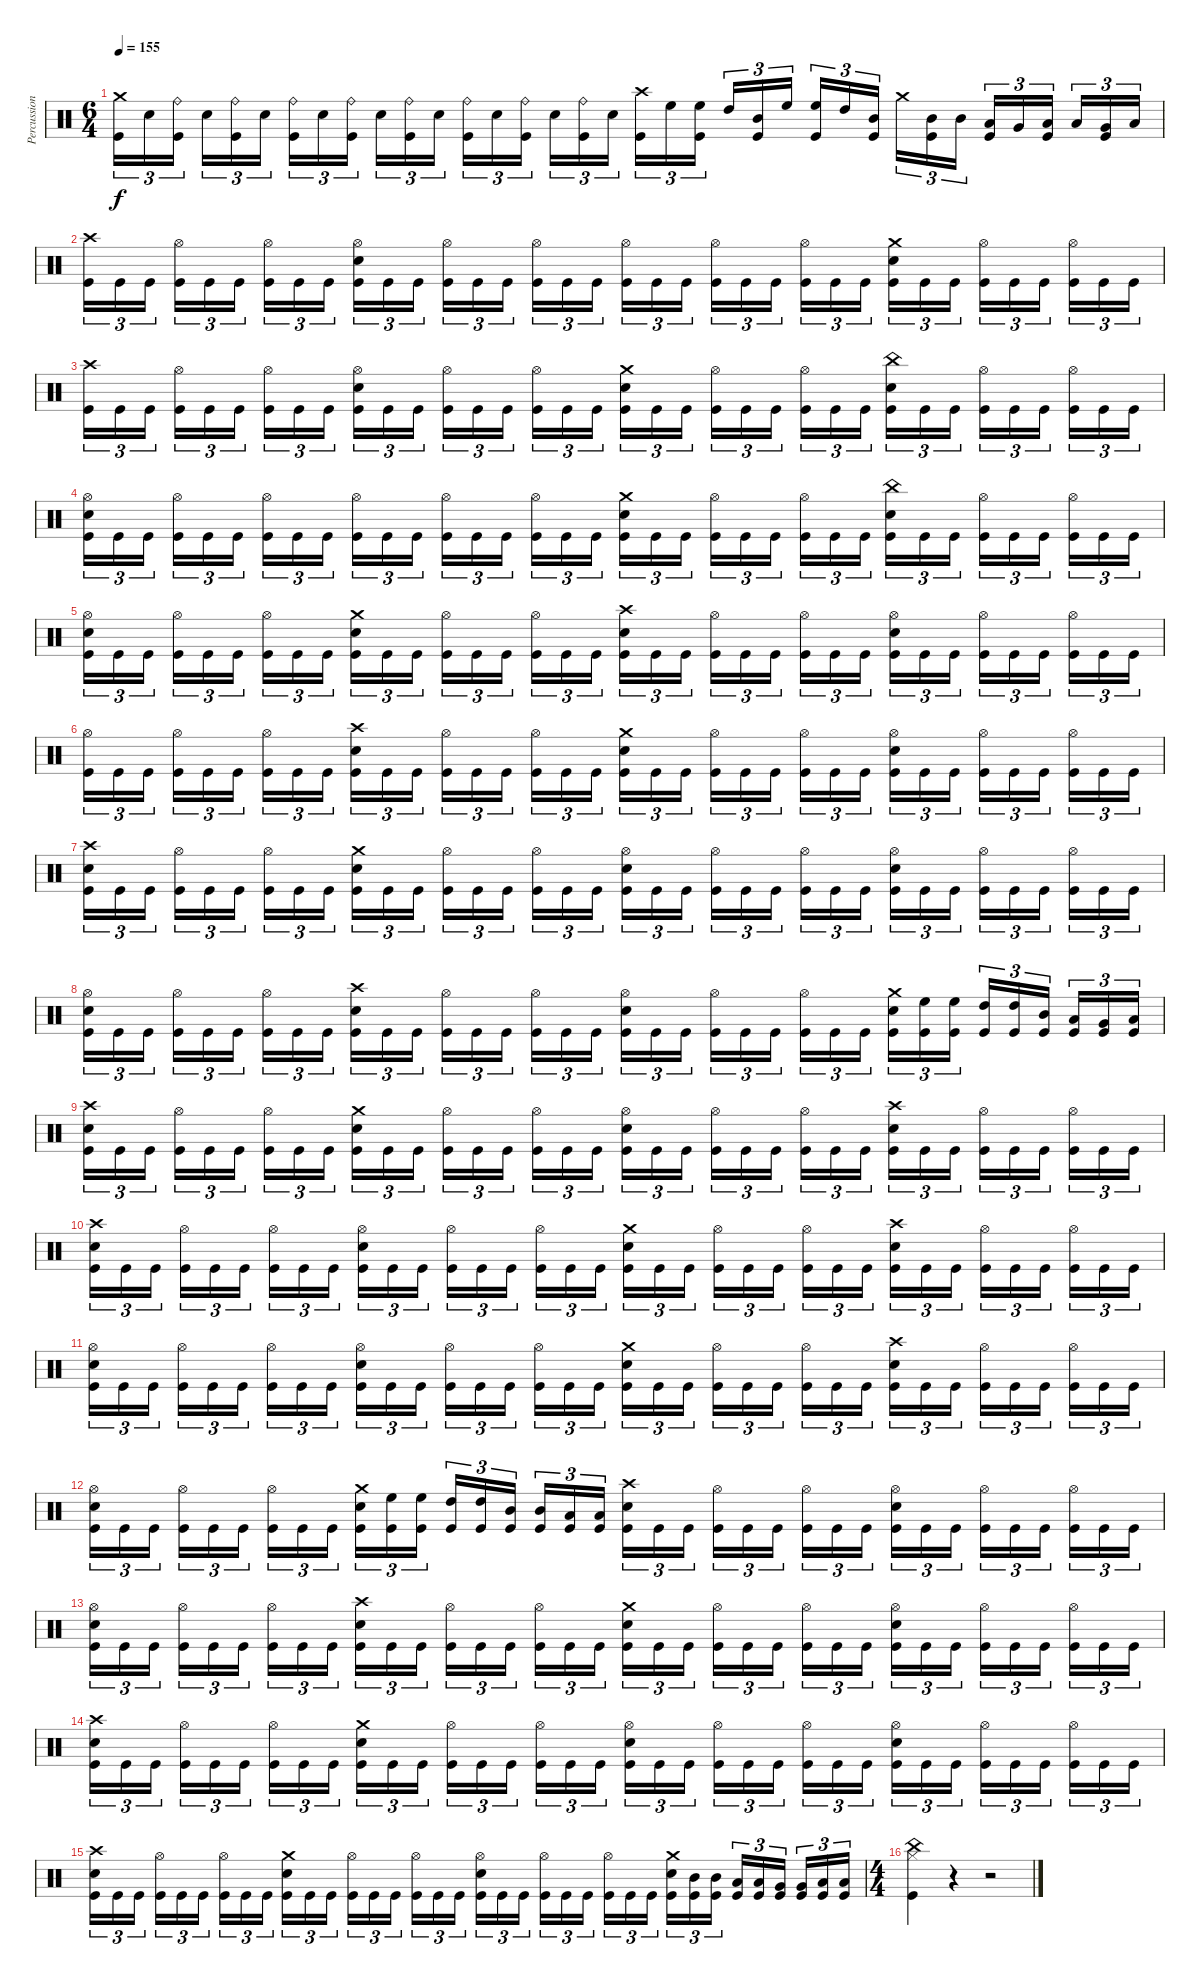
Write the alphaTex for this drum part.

\track ("Percussion" "Percussion") {instrument percussion}
\staff {score}
\articulation defaults
\ts (6 4)
\tempo 155
\clef neutral
\ks c
("Crash medium (hit)" "Kick (hit)").16{tu (3 2) dy f} "Snare (hit) 2".16{tu (3 2)} ("Ride (bell)" "Kick (hit)").16{tu (3 2) beam splitsecondary} "Snare (hit) 2".16{tu (3 2)} ("Ride (bell)" "Kick (hit)").16{tu (3 2)} "Snare (hit) 2".16{tu (3 2) beam splitsecondary} ("Ride (bell)" "Kick (hit)").16{tu (3 2)} "Snare (hit) 2".16{tu (3 2)} ("Ride (bell)" "Kick (hit)").16{tu (3 2) beam splitsecondary} "Snare (hit) 2".16{tu (3 2)} ("Ride (bell)" "Kick (hit)").16{tu (3 2)} "Snare (hit) 2".16{tu (3 2) beam splitsecondary} ("Ride (bell)" "Kick (hit)").16{tu (3 2)} "Snare (hit) 2".16{tu (3 2)} ("Ride (bell)" "Kick (hit)").16{tu (3 2) beam splitsecondary} "Snare (hit) 2".16{tu (3 2)} ("Ride (bell)" "Kick (hit)").16{tu (3 2)} "Snare (hit) 2".16{tu (3 2)} ("Crash high (hit)" "Kick (hit)").16{tu (3 2)} "High Floor Tom (hit)".16{tu (3 2)} ("High Floor Tom (hit)" "Kick (hit)").16{tu (3 2) beam splitsecondary} "High Tom (hit)".16{tu (3 2)} ("Mid Tom (hit)" "Kick (hit)").16{tu (3 2)} "High Floor Tom (hit)".16{tu (3 2) beam splitsecondary} ("High Floor Tom (hit)" "Kick (hit)").16{tu (3 2)} "High Tom (hit)".16{tu (3 2)} ("Mid Tom (hit)" "Kick (hit)").16{tu (3 2) beam splitsecondary} "Crash medium (hit)".16{tu (3 2)} ("Mid Tom (hit)" "Kick (hit)").16{tu (3 2)} "Mid Tom (hit)".16{tu (3 2) beam splitsecondary} ("Low Tom (hit)" "Kick (hit)").16{tu (3 2)} "Very Low Tom (hit)".16{tu (3 2)} ("Low Tom (hit)" "Kick (hit)").16{tu (3 2) beam splitsecondary} "Low Tom (hit)".16{tu (3 2)} ("Very Low Tom (hit)" "Kick (hit)").16{tu (3 2)} "Low Floor Tom (hit)".16{tu (3 2)} |
("Crash high (hit)" "Kick (hit)").16{tu (3 2)} "Kick (hit)".16{tu (3 2)} "Kick (hit)".16{tu (3 2) beam splitsecondary} ("Hi-Hat (open)" "Kick (hit)").16{tu (3 2)} "Kick (hit)".16{tu (3 2)} "Kick (hit)".16{tu (3 2) beam splitsecondary} ("Hi-Hat (open)" "Kick (hit)").16{tu (3 2)} "Kick (hit)".16{tu (3 2)} "Kick (hit)".16{tu (3 2) beam splitsecondary} ("Hi-Hat (open)" "Snare (hit) 2" "Kick (hit)").16{tu (3 2)} "Kick (hit)".16{tu (3 2)} "Kick (hit)".16{tu (3 2) beam splitsecondary} ("Hi-Hat (open)" "Kick (hit)").16{tu (3 2)} "Kick (hit)".16{tu (3 2)} "Kick (hit)".16{tu (3 2) beam splitsecondary} ("Hi-Hat (open)" "Kick (hit)").16{tu (3 2)} "Kick (hit)".16{tu (3 2)} "Kick (hit)".16{tu (3 2)} ("Hi-Hat (open)" "Kick (hit)").16{tu (3 2)} "Kick (hit)".16{tu (3 2)} "Kick (hit)".16{tu (3 2) beam splitsecondary} ("Hi-Hat (open)" "Kick (hit)").16{tu (3 2)} "Kick (hit)".16{tu (3 2)} "Kick (hit)".16{tu (3 2) beam splitsecondary} ("Hi-Hat (open)" "Kick (hit)").16{tu (3 2)} "Kick (hit)".16{tu (3 2)} "Kick (hit)".16{tu (3 2) beam splitsecondary} ("Crash medium (hit)" "Snare (hit) 2" "Kick (hit)").16{tu (3 2)} "Kick (hit)".16{tu (3 2)} "Kick (hit)".16{tu (3 2) beam splitsecondary} ("Hi-Hat (open)" "Kick (hit)").16{tu (3 2)} "Kick (hit)".16{tu (3 2)} "Kick (hit)".16{tu (3 2) beam splitsecondary} ("Hi-Hat (open)" "Kick (hit)").16{tu (3 2)} "Kick (hit)".16{tu (3 2)} "Kick (hit)".16{tu (3 2)} |
("Crash high (hit)" "Kick (hit)").16{tu (3 2)} "Kick (hit)".16{tu (3 2)} "Kick (hit)".16{tu (3 2) beam splitsecondary} ("Hi-Hat (open)" "Kick (hit)").16{tu (3 2)} "Kick (hit)".16{tu (3 2)} "Kick (hit)".16{tu (3 2) beam splitsecondary} ("Hi-Hat (open)" "Kick (hit)").16{tu (3 2)} "Kick (hit)".16{tu (3 2)} "Kick (hit)".16{tu (3 2) beam splitsecondary} ("Hi-Hat (open)" "Snare (hit) 2" "Kick (hit)").16{tu (3 2)} "Kick (hit)".16{tu (3 2)} "Kick (hit)".16{tu (3 2) beam splitsecondary} ("Hi-Hat (open)" "Kick (hit)").16{tu (3 2)} "Kick (hit)".16{tu (3 2)} "Kick (hit)".16{tu (3 2) beam splitsecondary} ("Hi-Hat (open)" "Kick (hit)").16{tu (3 2)} "Kick (hit)".16{tu (3 2)} "Kick (hit)".16{tu (3 2)} ("Crash medium (hit)" "Snare (hit) 2" "Kick (hit)").16{tu (3 2)} "Kick (hit)".16{tu (3 2)} "Kick (hit)".16{tu (3 2) beam splitsecondary} ("Hi-Hat (open)" "Kick (hit)").16{tu (3 2)} "Kick (hit)".16{tu (3 2)} "Kick (hit)".16{tu (3 2) beam splitsecondary} ("Hi-Hat (open)" "Kick (hit)").16{tu (3 2)} "Kick (hit)".16{tu (3 2)} "Kick (hit)".16{tu (3 2) beam splitsecondary} ("China (hit)" "Snare (hit) 2" "Kick (hit)").16{tu (3 2)} "Kick (hit)".16{tu (3 2)} "Kick (hit)".16{tu (3 2) beam splitsecondary} ("Hi-Hat (open)" "Kick (hit)").16{tu (3 2)} "Kick (hit)".16{tu (3 2)} "Kick (hit)".16{tu (3 2) beam splitsecondary} ("Hi-Hat (open)" "Kick (hit)").16{tu (3 2)} "Kick (hit)".16{tu (3 2)} "Kick (hit)".16{tu (3 2)} |
("Hi-Hat (open)" "Snare (hit) 2" "Kick (hit)").16{tu (3 2)} "Kick (hit)".16{tu (3 2)} "Kick (hit)".16{tu (3 2) beam splitsecondary} ("Hi-Hat (open)" "Kick (hit)").16{tu (3 2)} "Kick (hit)".16{tu (3 2)} "Kick (hit)".16{tu (3 2) beam splitsecondary} ("Hi-Hat (open)" "Kick (hit)").16{tu (3 2)} "Kick (hit)".16{tu (3 2)} "Kick (hit)".16{tu (3 2) beam splitsecondary} ("Hi-Hat (open)" "Kick (hit)").16{tu (3 2)} "Kick (hit)".16{tu (3 2)} "Kick (hit)".16{tu (3 2) beam splitsecondary} ("Hi-Hat (open)" "Kick (hit)").16{tu (3 2)} "Kick (hit)".16{tu (3 2)} "Kick (hit)".16{tu (3 2) beam splitsecondary} ("Hi-Hat (open)" "Kick (hit)").16{tu (3 2)} "Kick (hit)".16{tu (3 2)} "Kick (hit)".16{tu (3 2)} ("Crash medium (hit)" "Snare (hit) 2" "Kick (hit)").16{tu (3 2)} "Kick (hit)".16{tu (3 2)} "Kick (hit)".16{tu (3 2) beam splitsecondary} ("Hi-Hat (open)" "Kick (hit)").16{tu (3 2)} "Kick (hit)".16{tu (3 2)} "Kick (hit)".16{tu (3 2) beam splitsecondary} ("Hi-Hat (open)" "Kick (hit)").16{tu (3 2)} "Kick (hit)".16{tu (3 2)} "Kick (hit)".16{tu (3 2) beam splitsecondary} ("China (hit)" "Snare (hit) 2" "Kick (hit)").16{tu (3 2)} "Kick (hit)".16{tu (3 2)} "Kick (hit)".16{tu (3 2) beam splitsecondary} ("Hi-Hat (open)" "Kick (hit)").16{tu (3 2)} "Kick (hit)".16{tu (3 2)} "Kick (hit)".16{tu (3 2) beam splitsecondary} ("Hi-Hat (open)" "Kick (hit)").16{tu (3 2)} "Kick (hit)".16{tu (3 2)} "Kick (hit)".16{tu (3 2)} |
("Hi-Hat (open)" "Snare (hit) 2" "Kick (hit)").16{tu (3 2)} "Kick (hit)".16{tu (3 2)} "Kick (hit)".16{tu (3 2) beam splitsecondary} ("Hi-Hat (open)" "Kick (hit)").16{tu (3 2)} "Kick (hit)".16{tu (3 2)} "Kick (hit)".16{tu (3 2) beam splitsecondary} ("Hi-Hat (open)" "Kick (hit)").16{tu (3 2)} "Kick (hit)".16{tu (3 2)} "Kick (hit)".16{tu (3 2) beam splitsecondary} ("Crash medium (hit)" "Snare (hit) 2" "Kick (hit)").16{tu (3 2)} "Kick (hit)".16{tu (3 2)} "Kick (hit)".16{tu (3 2) beam splitsecondary} ("Hi-Hat (open)" "Kick (hit)").16{tu (3 2)} "Kick (hit)".16{tu (3 2)} "Kick (hit)".16{tu (3 2) beam splitsecondary} ("Hi-Hat (open)" "Kick (hit)").16{tu (3 2)} "Kick (hit)".16{tu (3 2)} "Kick (hit)".16{tu (3 2)} ("Crash high (hit)" "Snare (hit) 2" "Kick (hit)").16{tu (3 2)} "Kick (hit)".16{tu (3 2)} "Kick (hit)".16{tu (3 2) beam splitsecondary} ("Hi-Hat (open)" "Kick (hit)").16{tu (3 2)} "Kick (hit)".16{tu (3 2)} "Kick (hit)".16{tu (3 2) beam splitsecondary} ("Hi-Hat (open)" "Kick (hit)").16{tu (3 2)} "Kick (hit)".16{tu (3 2)} "Kick (hit)".16{tu (3 2) beam splitsecondary} ("Hi-Hat (open)" "Snare (hit) 2" "Kick (hit)").16{tu (3 2)} "Kick (hit)".16{tu (3 2)} "Kick (hit)".16{tu (3 2) beam splitsecondary} ("Hi-Hat (open)" "Kick (hit)").16{tu (3 2)} "Kick (hit)".16{tu (3 2)} "Kick (hit)".16{tu (3 2) beam splitsecondary} ("Hi-Hat (open)" "Kick (hit)").16{tu (3 2)} "Kick (hit)".16{tu (3 2)} "Kick (hit)".16{tu (3 2)} |
("Hi-Hat (open)" "Kick (hit)").16{tu (3 2)} "Kick (hit)".16{tu (3 2)} "Kick (hit)".16{tu (3 2) beam splitsecondary} ("Hi-Hat (open)" "Kick (hit)").16{tu (3 2)} "Kick (hit)".16{tu (3 2)} "Kick (hit)".16{tu (3 2) beam splitsecondary} ("Hi-Hat (open)" "Kick (hit)").16{tu (3 2)} "Kick (hit)".16{tu (3 2)} "Kick (hit)".16{tu (3 2) beam splitsecondary} ("Crash high (hit)" "Snare (hit) 2" "Kick (hit)").16{tu (3 2)} "Kick (hit)".16{tu (3 2)} "Kick (hit)".16{tu (3 2) beam splitsecondary} ("Hi-Hat (open)" "Kick (hit)").16{tu (3 2)} "Kick (hit)".16{tu (3 2)} "Kick (hit)".16{tu (3 2) beam splitsecondary} ("Hi-Hat (open)" "Kick (hit)").16{tu (3 2)} "Kick (hit)".16{tu (3 2)} "Kick (hit)".16{tu (3 2)} ("Crash medium (hit)" "Snare (hit) 2" "Kick (hit)").16{tu (3 2)} "Kick (hit)".16{tu (3 2)} "Kick (hit)".16{tu (3 2) beam splitsecondary} ("Hi-Hat (open)" "Kick (hit)").16{tu (3 2)} "Kick (hit)".16{tu (3 2)} "Kick (hit)".16{tu (3 2) beam splitsecondary} ("Hi-Hat (open)" "Kick (hit)").16{tu (3 2)} "Kick (hit)".16{tu (3 2)} "Kick (hit)".16{tu (3 2) beam splitsecondary} ("Hi-Hat (open)" "Snare (hit) 2" "Kick (hit)").16{tu (3 2)} "Kick (hit)".16{tu (3 2)} "Kick (hit)".16{tu (3 2) beam splitsecondary} ("Hi-Hat (open)" "Kick (hit)").16{tu (3 2)} "Kick (hit)".16{tu (3 2)} "Kick (hit)".16{tu (3 2) beam splitsecondary} ("Hi-Hat (open)" "Kick (hit)").16{tu (3 2)} "Kick (hit)".16{tu (3 2)} "Kick (hit)".16{tu (3 2)} |
("Crash high (hit)" "Snare (hit) 2" "Kick (hit)").16{tu (3 2)} "Kick (hit)".16{tu (3 2)} "Kick (hit)".16{tu (3 2) beam splitsecondary} ("Hi-Hat (open)" "Kick (hit)").16{tu (3 2)} "Kick (hit)".16{tu (3 2)} "Kick (hit)".16{tu (3 2) beam splitsecondary} ("Hi-Hat (open)" "Kick (hit)").16{tu (3 2)} "Kick (hit)".16{tu (3 2)} "Kick (hit)".16{tu (3 2) beam splitsecondary} ("Crash medium (hit)" "Snare (hit) 2" "Kick (hit)").16{tu (3 2)} "Kick (hit)".16{tu (3 2)} "Kick (hit)".16{tu (3 2) beam splitsecondary} ("Hi-Hat (open)" "Kick (hit)").16{tu (3 2)} "Kick (hit)".16{tu (3 2)} "Kick (hit)".16{tu (3 2) beam splitsecondary} ("Hi-Hat (open)" "Kick (hit)").16{tu (3 2)} "Kick (hit)".16{tu (3 2)} "Kick (hit)".16{tu (3 2)} ("Hi-Hat (open)" "Snare (hit) 2" "Kick (hit)").16{tu (3 2)} "Kick (hit)".16{tu (3 2)} "Kick (hit)".16{tu (3 2) beam splitsecondary} ("Hi-Hat (open)" "Kick (hit)").16{tu (3 2)} "Kick (hit)".16{tu (3 2)} "Kick (hit)".16{tu (3 2) beam splitsecondary} ("Hi-Hat (open)" "Kick (hit)").16{tu (3 2)} "Kick (hit)".16{tu (3 2)} "Kick (hit)".16{tu (3 2) beam splitsecondary} ("Hi-Hat (open)" "Snare (hit) 2" "Kick (hit)").16{tu (3 2)} "Kick (hit)".16{tu (3 2)} "Kick (hit)".16{tu (3 2) beam splitsecondary} ("Hi-Hat (open)" "Kick (hit)").16{tu (3 2)} "Kick (hit)".16{tu (3 2)} "Kick (hit)".16{tu (3 2) beam splitsecondary} ("Hi-Hat (open)" "Kick (hit)").16{tu (3 2)} "Kick (hit)".16{tu (3 2)} "Kick (hit)".16{tu (3 2)} |
("Hi-Hat (open)" "Snare (hit) 2" "Kick (hit)").16{tu (3 2)} "Kick (hit)".16{tu (3 2)} "Kick (hit)".16{tu (3 2) beam splitsecondary} ("Hi-Hat (open)" "Kick (hit)").16{tu (3 2)} "Kick (hit)".16{tu (3 2)} "Kick (hit)".16{tu (3 2) beam splitsecondary} ("Hi-Hat (open)" "Kick (hit)").16{tu (3 2)} "Kick (hit)".16{tu (3 2)} "Kick (hit)".16{tu (3 2) beam splitsecondary} ("Crash high (hit)" "Snare (hit) 2" "Kick (hit)").16{tu (3 2)} "Kick (hit)".16{tu (3 2)} "Kick (hit)".16{tu (3 2) beam splitsecondary} ("Hi-Hat (open)" "Kick (hit)").16{tu (3 2)} "Kick (hit)".16{tu (3 2)} "Kick (hit)".16{tu (3 2) beam splitsecondary} ("Hi-Hat (open)" "Kick (hit)").16{tu (3 2)} "Kick (hit)".16{tu (3 2)} "Kick (hit)".16{tu (3 2)} ("Hi-Hat (open)" "Snare (hit) 2" "Kick (hit)").16{tu (3 2)} "Kick (hit)".16{tu (3 2)} "Kick (hit)".16{tu (3 2) beam splitsecondary} ("Hi-Hat (open)" "Kick (hit)").16{tu (3 2)} "Kick (hit)".16{tu (3 2)} "Kick (hit)".16{tu (3 2) beam splitsecondary} ("Hi-Hat (open)" "Kick (hit)").16{tu (3 2)} "Kick (hit)".16{tu (3 2)} "Kick (hit)".16{tu (3 2) beam splitsecondary} ("Crash medium (hit)" "Snare (hit) 2" "Kick (hit)").16{tu (3 2)} ("High Floor Tom (hit)" "Kick (hit)").16{tu (3 2)} ("High Floor Tom (hit)" "Kick (hit)").16{tu (3 2) beam splitsecondary} ("High Tom (hit)" "Kick (hit)").16{tu (3 2)} ("High Tom (hit)" "Kick (hit)").16{tu (3 2)} ("Mid Tom (hit)" "Kick (hit)").16{tu (3 2) beam splitsecondary} ("Low Tom (hit)" "Kick (hit)").16{tu (3 2)} ("Very Low Tom (hit)" "Kick (hit)").16{tu (3 2)} ("Low Floor Tom (hit)" "Kick (hit)").16{tu (3 2)} |
("Crash high (hit)" "Snare (hit) 2" "Kick (hit)").16{tu (3 2)} "Kick (hit)".16{tu (3 2)} "Kick (hit)".16{tu (3 2) beam splitsecondary} ("Hi-Hat (open)" "Kick (hit)").16{tu (3 2)} "Kick (hit)".16{tu (3 2)} "Kick (hit)".16{tu (3 2) beam splitsecondary} ("Hi-Hat (open)" "Kick (hit)").16{tu (3 2)} "Kick (hit)".16{tu (3 2)} "Kick (hit)".16{tu (3 2) beam splitsecondary} ("Crash medium (hit)" "Snare (hit) 2" "Kick (hit)").16{tu (3 2)} "Kick (hit)".16{tu (3 2)} "Kick (hit)".16{tu (3 2) beam splitsecondary} ("Hi-Hat (open)" "Kick (hit)").16{tu (3 2)} "Kick (hit)".16{tu (3 2)} "Kick (hit)".16{tu (3 2) beam splitsecondary} ("Hi-Hat (open)" "Kick (hit)").16{tu (3 2)} "Kick (hit)".16{tu (3 2)} "Kick (hit)".16{tu (3 2)} ("Hi-Hat (open)" "Snare (hit) 2" "Kick (hit)").16{tu (3 2)} "Kick (hit)".16{tu (3 2)} "Kick (hit)".16{tu (3 2) beam splitsecondary} ("Hi-Hat (open)" "Kick (hit)").16{tu (3 2)} "Kick (hit)".16{tu (3 2)} "Kick (hit)".16{tu (3 2) beam splitsecondary} ("Hi-Hat (open)" "Kick (hit)").16{tu (3 2)} "Kick (hit)".16{tu (3 2)} "Kick (hit)".16{tu (3 2) beam splitsecondary} ("Crash high (hit)" "Snare (hit) 2" "Kick (hit)").16{tu (3 2)} "Kick (hit)".16{tu (3 2)} "Kick (hit)".16{tu (3 2) beam splitsecondary} ("Hi-Hat (open)" "Kick (hit)").16{tu (3 2)} "Kick (hit)".16{tu (3 2)} "Kick (hit)".16{tu (3 2) beam splitsecondary} ("Hi-Hat (open)" "Kick (hit)").16{tu (3 2)} "Kick (hit)".16{tu (3 2)} "Kick (hit)".16{tu (3 2)} |
("Crash high (hit)" "Snare (hit) 2" "Kick (hit)").16{tu (3 2)} "Kick (hit)".16{tu (3 2)} "Kick (hit)".16{tu (3 2) beam splitsecondary} ("Hi-Hat (open)" "Kick (hit)").16{tu (3 2)} "Kick (hit)".16{tu (3 2)} "Kick (hit)".16{tu (3 2) beam splitsecondary} ("Hi-Hat (open)" "Kick (hit)").16{tu (3 2)} "Kick (hit)".16{tu (3 2)} "Kick (hit)".16{tu (3 2) beam splitsecondary} ("Hi-Hat (open)" "Snare (hit) 2" "Kick (hit)").16{tu (3 2)} "Kick (hit)".16{tu (3 2)} "Kick (hit)".16{tu (3 2) beam splitsecondary} ("Hi-Hat (open)" "Kick (hit)").16{tu (3 2)} "Kick (hit)".16{tu (3 2)} "Kick (hit)".16{tu (3 2) beam splitsecondary} ("Hi-Hat (open)" "Kick (hit)").16{tu (3 2)} "Kick (hit)".16{tu (3 2)} "Kick (hit)".16{tu (3 2)} ("Crash medium (hit)" "Snare (hit) 2" "Kick (hit)").16{tu (3 2)} "Kick (hit)".16{tu (3 2)} "Kick (hit)".16{tu (3 2) beam splitsecondary} ("Hi-Hat (open)" "Kick (hit)").16{tu (3 2)} "Kick (hit)".16{tu (3 2)} "Kick (hit)".16{tu (3 2) beam splitsecondary} ("Hi-Hat (open)" "Kick (hit)").16{tu (3 2)} "Kick (hit)".16{tu (3 2)} "Kick (hit)".16{tu (3 2) beam splitsecondary} ("Crash high (hit)" "Snare (hit) 2" "Kick (hit)").16{tu (3 2)} "Kick (hit)".16{tu (3 2)} "Kick (hit)".16{tu (3 2) beam splitsecondary} ("Hi-Hat (open)" "Kick (hit)").16{tu (3 2)} "Kick (hit)".16{tu (3 2)} "Kick (hit)".16{tu (3 2) beam splitsecondary} ("Hi-Hat (open)" "Kick (hit)").16{tu (3 2)} "Kick (hit)".16{tu (3 2)} "Kick (hit)".16{tu (3 2)} |
("Hi-Hat (open)" "Snare (hit) 2" "Kick (hit)").16{tu (3 2)} "Kick (hit)".16{tu (3 2)} "Kick (hit)".16{tu (3 2) beam splitsecondary} ("Hi-Hat (open)" "Kick (hit)").16{tu (3 2)} "Kick (hit)".16{tu (3 2)} "Kick (hit)".16{tu (3 2) beam splitsecondary} ("Hi-Hat (open)" "Kick (hit)").16{tu (3 2)} "Kick (hit)".16{tu (3 2)} "Kick (hit)".16{tu (3 2) beam splitsecondary} ("Hi-Hat (open)" "Snare (hit) 2" "Kick (hit)").16{tu (3 2)} "Kick (hit)".16{tu (3 2)} "Kick (hit)".16{tu (3 2) beam splitsecondary} ("Hi-Hat (open)" "Kick (hit)").16{tu (3 2)} "Kick (hit)".16{tu (3 2)} "Kick (hit)".16{tu (3 2) beam splitsecondary} ("Hi-Hat (open)" "Kick (hit)").16{tu (3 2)} "Kick (hit)".16{tu (3 2)} "Kick (hit)".16{tu (3 2)} ("Crash medium (hit)" "Snare (hit) 2" "Kick (hit)").16{tu (3 2)} "Kick (hit)".16{tu (3 2)} "Kick (hit)".16{tu (3 2) beam splitsecondary} ("Hi-Hat (open)" "Kick (hit)").16{tu (3 2)} "Kick (hit)".16{tu (3 2)} "Kick (hit)".16{tu (3 2) beam splitsecondary} ("Hi-Hat (open)" "Kick (hit)").16{tu (3 2)} "Kick (hit)".16{tu (3 2)} "Kick (hit)".16{tu (3 2) beam splitsecondary} ("Crash high (hit)" "Snare (hit) 2" "Kick (hit)").16{tu (3 2)} "Kick (hit)".16{tu (3 2)} "Kick (hit)".16{tu (3 2) beam splitsecondary} ("Hi-Hat (open)" "Kick (hit)").16{tu (3 2)} "Kick (hit)".16{tu (3 2)} "Kick (hit)".16{tu (3 2) beam splitsecondary} ("Hi-Hat (open)" "Kick (hit)").16{tu (3 2)} "Kick (hit)".16{tu (3 2)} "Kick (hit)".16{tu (3 2)} |
("Hi-Hat (open)" "Snare (hit) 2" "Kick (hit)").16{tu (3 2)} "Kick (hit)".16{tu (3 2)} "Kick (hit)".16{tu (3 2) beam splitsecondary} ("Hi-Hat (open)" "Kick (hit)").16{tu (3 2)} "Kick (hit)".16{tu (3 2)} "Kick (hit)".16{tu (3 2) beam splitsecondary} ("Hi-Hat (open)" "Kick (hit)").16{tu (3 2)} "Kick (hit)".16{tu (3 2)} "Kick (hit)".16{tu (3 2) beam splitsecondary} ("Crash medium (hit)" "Snare (hit) 2" "Kick (hit)").16{tu (3 2)} ("High Floor Tom (hit)" "Kick (hit)").16{tu (3 2)} ("High Floor Tom (hit)" "Kick (hit)").16{tu (3 2) beam splitsecondary} ("High Tom (hit)" "Kick (hit)").16{tu (3 2)} ("High Tom (hit)" "Kick (hit)").16{tu (3 2)} ("Mid Tom (hit)" "Kick (hit)").16{tu (3 2) beam splitsecondary} ("Mid Tom (hit)" "Kick (hit)").16{tu (3 2)} ("Low Tom (hit)" "Kick (hit)").16{tu (3 2)} ("Low Tom (hit)" "Kick (hit)").16{tu (3 2)} ("Crash high (hit)" "Snare (hit) 2" "Kick (hit)").16{tu (3 2)} "Kick (hit)".16{tu (3 2)} "Kick (hit)".16{tu (3 2) beam splitsecondary} ("Hi-Hat (open)" "Kick (hit)").16{tu (3 2)} "Kick (hit)".16{tu (3 2)} "Kick (hit)".16{tu (3 2) beam splitsecondary} ("Hi-Hat (open)" "Kick (hit)").16{tu (3 2)} "Kick (hit)".16{tu (3 2)} "Kick (hit)".16{tu (3 2) beam splitsecondary} ("Hi-Hat (open)" "Snare (hit) 2" "Kick (hit)").16{tu (3 2)} "Kick (hit)".16{tu (3 2)} "Kick (hit)".16{tu (3 2) beam splitsecondary} ("Hi-Hat (open)" "Kick (hit)").16{tu (3 2)} "Kick (hit)".16{tu (3 2)} "Kick (hit)".16{tu (3 2) beam splitsecondary} ("Hi-Hat (open)" "Kick (hit)").16{tu (3 2)} "Kick (hit)".16{tu (3 2)} "Kick (hit)".16{tu (3 2)} |
("Hi-Hat (open)" "Snare (hit) 2" "Kick (hit)").16{tu (3 2)} "Kick (hit)".16{tu (3 2)} "Kick (hit)".16{tu (3 2) beam splitsecondary} ("Hi-Hat (open)" "Kick (hit)").16{tu (3 2)} "Kick (hit)".16{tu (3 2)} "Kick (hit)".16{tu (3 2) beam splitsecondary} ("Hi-Hat (open)" "Kick (hit)").16{tu (3 2)} "Kick (hit)".16{tu (3 2)} "Kick (hit)".16{tu (3 2) beam splitsecondary} ("Crash high (hit)" "Snare (hit) 2" "Kick (hit)").16{tu (3 2)} "Kick (hit)".16{tu (3 2)} "Kick (hit)".16{tu (3 2) beam splitsecondary} ("Hi-Hat (open)" "Kick (hit)").16{tu (3 2)} "Kick (hit)".16{tu (3 2)} "Kick (hit)".16{tu (3 2) beam splitsecondary} ("Hi-Hat (open)" "Kick (hit)").16{tu (3 2)} "Kick (hit)".16{tu (3 2)} "Kick (hit)".16{tu (3 2)} ("Crash medium (hit)" "Snare (hit) 2" "Kick (hit)").16{tu (3 2)} "Kick (hit)".16{tu (3 2)} "Kick (hit)".16{tu (3 2) beam splitsecondary} ("Hi-Hat (open)" "Kick (hit)").16{tu (3 2)} "Kick (hit)".16{tu (3 2)} "Kick (hit)".16{tu (3 2) beam splitsecondary} ("Hi-Hat (open)" "Kick (hit)").16{tu (3 2)} "Kick (hit)".16{tu (3 2)} "Kick (hit)".16{tu (3 2) beam splitsecondary} ("Hi-Hat (open)" "Snare (hit) 2" "Kick (hit)").16{tu (3 2)} "Kick (hit)".16{tu (3 2)} "Kick (hit)".16{tu (3 2) beam splitsecondary} ("Hi-Hat (open)" "Kick (hit)").16{tu (3 2)} "Kick (hit)".16{tu (3 2)} "Kick (hit)".16{tu (3 2) beam splitsecondary} ("Hi-Hat (open)" "Kick (hit)").16{tu (3 2)} "Kick (hit)".16{tu (3 2)} "Kick (hit)".16{tu (3 2)} |
("Crash high (hit)" "Snare (hit) 2" "Kick (hit)").16{tu (3 2)} "Kick (hit)".16{tu (3 2)} "Kick (hit)".16{tu (3 2) beam splitsecondary} ("Hi-Hat (open)" "Kick (hit)").16{tu (3 2)} "Kick (hit)".16{tu (3 2)} "Kick (hit)".16{tu (3 2) beam splitsecondary} ("Hi-Hat (open)" "Kick (hit)").16{tu (3 2)} "Kick (hit)".16{tu (3 2)} "Kick (hit)".16{tu (3 2) beam splitsecondary} ("Crash medium (hit)" "Snare (hit) 2" "Kick (hit)").16{tu (3 2)} "Kick (hit)".16{tu (3 2)} "Kick (hit)".16{tu (3 2) beam splitsecondary} ("Hi-Hat (open)" "Kick (hit)").16{tu (3 2)} "Kick (hit)".16{tu (3 2)} "Kick (hit)".16{tu (3 2) beam splitsecondary} ("Hi-Hat (open)" "Kick (hit)").16{tu (3 2)} "Kick (hit)".16{tu (3 2)} "Kick (hit)".16{tu (3 2)} ("Hi-Hat (open)" "Snare (hit) 2" "Kick (hit)").16{tu (3 2)} "Kick (hit)".16{tu (3 2)} "Kick (hit)".16{tu (3 2) beam splitsecondary} ("Hi-Hat (open)" "Kick (hit)").16{tu (3 2)} "Kick (hit)".16{tu (3 2)} "Kick (hit)".16{tu (3 2) beam splitsecondary} ("Hi-Hat (open)" "Kick (hit)").16{tu (3 2)} "Kick (hit)".16{tu (3 2)} "Kick (hit)".16{tu (3 2) beam splitsecondary} ("Hi-Hat (open)" "Snare (hit) 2" "Kick (hit)").16{tu (3 2)} "Kick (hit)".16{tu (3 2)} "Kick (hit)".16{tu (3 2) beam splitsecondary} ("Hi-Hat (open)" "Kick (hit)").16{tu (3 2)} "Kick (hit)".16{tu (3 2)} "Kick (hit)".16{tu (3 2) beam splitsecondary} ("Hi-Hat (open)" "Kick (hit)").16{tu (3 2)} "Kick (hit)".16{tu (3 2)} "Kick (hit)".16{tu (3 2)} |
("Crash high (hit)" "Snare (hit) 2" "Kick (hit)").16{tu (3 2)} "Kick (hit)".16{tu (3 2)} "Kick (hit)".16{tu (3 2) beam splitsecondary} ("Hi-Hat (open)" "Kick (hit)").16{tu (3 2)} "Kick (hit)".16{tu (3 2)} "Kick (hit)".16{tu (3 2) beam splitsecondary} ("Hi-Hat (open)" "Kick (hit)").16{tu (3 2)} "Kick (hit)".16{tu (3 2)} "Kick (hit)".16{tu (3 2) beam splitsecondary} ("Crash medium (hit)" "Snare (hit) 2" "Kick (hit)").16{tu (3 2)} "Kick (hit)".16{tu (3 2)} "Kick (hit)".16{tu (3 2) beam splitsecondary} ("Hi-Hat (open)" "Kick (hit)").16{tu (3 2)} "Kick (hit)".16{tu (3 2)} "Kick (hit)".16{tu (3 2) beam splitsecondary} ("Hi-Hat (open)" "Kick (hit)").16{tu (3 2)} "Kick (hit)".16{tu (3 2)} "Kick (hit)".16{tu (3 2)} ("Hi-Hat (open)" "Snare (hit) 2" "Kick (hit)").16{tu (3 2)} "Kick (hit)".16{tu (3 2)} "Kick (hit)".16{tu (3 2) beam splitsecondary} ("Hi-Hat (open)" "Kick (hit)").16{tu (3 2)} "Kick (hit)".16{tu (3 2)} "Kick (hit)".16{tu (3 2) beam splitsecondary} ("Hi-Hat (open)" "Kick (hit)").16{tu (3 2)} "Kick (hit)".16{tu (3 2)} "Kick (hit)".16{tu (3 2) beam splitsecondary} ("Crash medium (hit)" "Snare (hit) 2" "Kick (hit)").16{tu (3 2)} ("Mid Tom (hit)" "Kick (hit)").16{tu (3 2)} ("Mid Tom (hit)" "Kick (hit)").16{tu (3 2) beam splitsecondary} ("Low Tom (hit)" "Kick (hit)").16{tu (3 2)} ("Low Tom (hit)" "Kick (hit)").16{tu (3 2)} ("Very Low Tom (hit)" "Kick (hit)").16{tu (3 2) beam splitsecondary} ("Very Low Tom (hit)" "Kick (hit)").16{tu (3 2)} ("Low Floor Tom (hit)" "Kick (hit)").16{tu (3 2)} ("Low Floor Tom (hit)" "Kick (hit)").16{tu (3 2)} |
\ts (4 4)
("China (hit)" "Hi-Hat (closed)" "Kick (hit)").4 r.4 r.2
